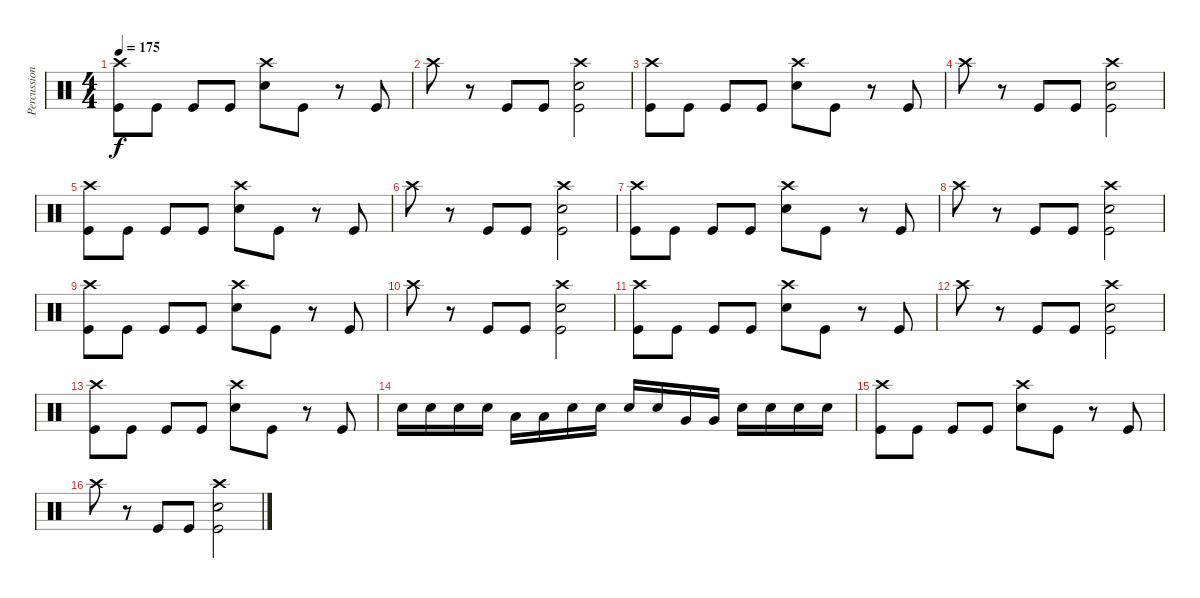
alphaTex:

\track ("Percussion" "Percussion") {instrument percussion}
\staff {score}
\articulation defaults
\ts (4 4)
\tempo 175
\clef neutral
\ks c
("Crash high (hit)" "Kick (hit)").8{dy f} "Kick (hit)".8 "Kick (hit)".8 "Kick (hit)".8 ("Crash high (hit)" "Electric Snare (hit)").8 "Kick (hit)".8 r.8 "Kick (hit)".8 |
"Crash high (hit)".8 r.8 "Kick (hit)".8 "Kick (hit)".8 ("Crash high (hit)" "Electric Snare (hit)" "Kick (hit)").2 |
("Crash high (hit)" "Kick (hit)").8 "Kick (hit)".8 "Kick (hit)".8 "Kick (hit)".8 ("Crash high (hit)" "Electric Snare (hit)").8 "Kick (hit)".8 r.8 "Kick (hit)".8 |
"Crash high (hit)".8 r.8 "Kick (hit)".8 "Kick (hit)".8 ("Crash high (hit)" "Electric Snare (hit)" "Kick (hit)").2 |
("Crash high (hit)" "Kick (hit)").8 "Kick (hit)".8 "Kick (hit)".8 "Kick (hit)".8 ("Crash high (hit)" "Electric Snare (hit)").8 "Kick (hit)".8 r.8 "Kick (hit)".8 |
"Crash high (hit)".8 r.8 "Kick (hit)".8 "Kick (hit)".8 ("Crash high (hit)" "Electric Snare (hit)" "Kick (hit)").2 |
("Crash high (hit)" "Kick (hit)").8 "Kick (hit)".8 "Kick (hit)".8 "Kick (hit)".8 ("Crash high (hit)" "Electric Snare (hit)").8 "Kick (hit)".8 r.8 "Kick (hit)".8 |
"Crash high (hit)".8 r.8 "Kick (hit)".8 "Kick (hit)".8 ("Crash high (hit)" "Electric Snare (hit)" "Kick (hit)").2 |
("Crash high (hit)" "Kick (hit)").8 "Kick (hit)".8 "Kick (hit)".8 "Kick (hit)".8 ("Crash high (hit)" "Electric Snare (hit)").8 "Kick (hit)".8 r.8 "Kick (hit)".8 |
"Crash high (hit)".8 r.8 "Kick (hit)".8 "Kick (hit)".8 ("Crash high (hit)" "Electric Snare (hit)" "Kick (hit)").2 |
("Crash high (hit)" "Kick (hit)").8 "Kick (hit)".8 "Kick (hit)".8 "Kick (hit)".8 ("Crash high (hit)" "Electric Snare (hit)").8 "Kick (hit)".8 r.8 "Kick (hit)".8 |
"Crash high (hit)".8 r.8 "Kick (hit)".8 "Kick (hit)".8 ("Crash high (hit)" "Electric Snare (hit)" "Kick (hit)").2 |
("Crash high (hit)" "Kick (hit)").8 "Kick (hit)".8 "Kick (hit)".8 "Kick (hit)".8 ("Crash high (hit)" "Electric Snare (hit)").8 "Kick (hit)".8 r.8 "Kick (hit)".8 |
"Electric Snare (hit)".16 "Electric Snare (hit)".16 "Electric Snare (hit)".16 "Electric Snare (hit)".16 "Low Tom (hit)".16 "Low Tom (hit)".16 "Electric Snare (hit)".16 "Electric Snare (hit)".16 "Electric Snare (hit)".16 "Electric Snare (hit)".16 "Very Low Tom (hit)".16 "Very Low Tom (hit)".16 "Electric Snare (hit)".16 "Electric Snare (hit)".16 "Electric Snare (hit)".16 "Electric Snare (hit)".16 |
("Crash high (hit)" "Kick (hit)").8 "Kick (hit)".8 "Kick (hit)".8 "Kick (hit)".8 ("Crash high (hit)" "Electric Snare (hit)").8 "Kick (hit)".8 r.8 "Kick (hit)".8 |
"Crash high (hit)".8 r.8 "Kick (hit)".8 "Kick (hit)".8 ("Crash high (hit)" "Electric Snare (hit)" "Kick (hit)").2
